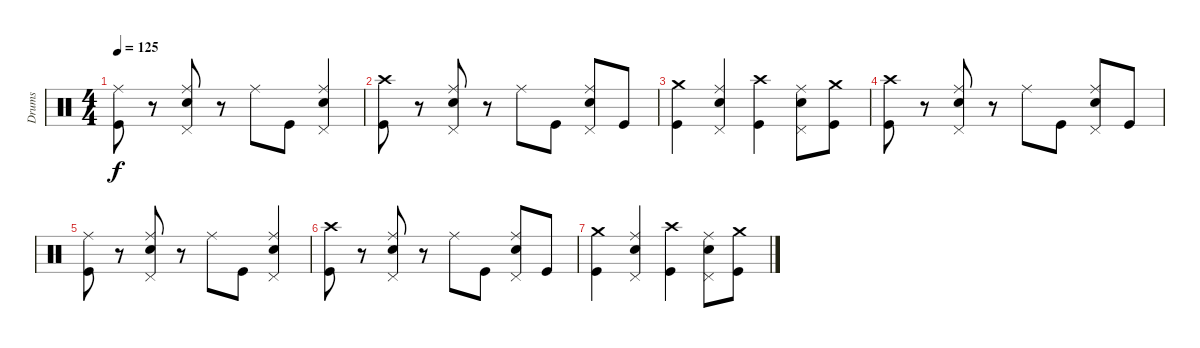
\track ("Drums" "Drums") {instrument percussion}
\staff {score}
\articulation defaults
\ts (4 4)
\tempo 125
\clef neutral
\ks c
("Kick (hit)" "Ride (middle)").8{dy f volume 5} r.8 ("Snare (hit) 2" "Ride (middle)" "Pedal Hi-Hat (hit)").8 r.8 "Ride (middle)".8 "Kick (hit)".8 ("Snare (hit) 2" "Ride (middle)" "Pedal Hi-Hat (hit)").4 |
("Crash high (hit)" "Kick (hit)").8 r.8 ("Snare (hit) 2" "Ride (middle)" "Pedal Hi-Hat (hit)").8 r.8 "Ride (middle)".8 "Kick (hit)".8 ("Snare (hit) 2" "Ride (middle)" "Pedal Hi-Hat (hit)").8 "Kick (hit)".8 |
("Kick (hit)" "Crash medium (hit)").4 ("Snare (hit) 2" "Pedal Hi-Hat (hit)" "Ride (middle)").4 ("Crash high (hit)" "Kick (hit)").4 ("Snare (hit) 2" "Pedal Hi-Hat (hit)" "Ride (middle)").8 ("Crash medium (hit)" "Kick (hit)").8 |
("Crash high (hit)" "Kick (hit)").8 r.8 ("Snare (hit) 2" "Ride (middle)" "Pedal Hi-Hat (hit)").8 r.8 "Ride (middle)".8 "Kick (hit)".8 ("Snare (hit) 2" "Ride (middle)" "Pedal Hi-Hat (hit)").8 "Kick (hit)".8 |
("Kick (hit)" "Ride (middle)").8 r.8 ("Snare (hit) 2" "Ride (middle)" "Pedal Hi-Hat (hit)").8 r.8 "Ride (middle)".8 "Kick (hit)".8 ("Snare (hit) 2" "Ride (middle)" "Pedal Hi-Hat (hit)").4 |
("Crash high (hit)" "Kick (hit)").8{volume 0} r.8 ("Snare (hit) 2" "Ride (middle)" "Pedal Hi-Hat (hit)").8 r.8 "Ride (middle)".8 "Kick (hit)".8 ("Snare (hit) 2" "Ride (middle)" "Pedal Hi-Hat (hit)").8 "Kick (hit)".8 |
("Kick (hit)" "Crash medium (hit)").4 ("Snare (hit) 2" "Pedal Hi-Hat (hit)" "Ride (middle)").4 ("Crash high (hit)" "Kick (hit)").4 ("Snare (hit) 2" "Pedal Hi-Hat (hit)" "Ride (middle)").8 ("Crash medium (hit)" "Kick (hit)").8
